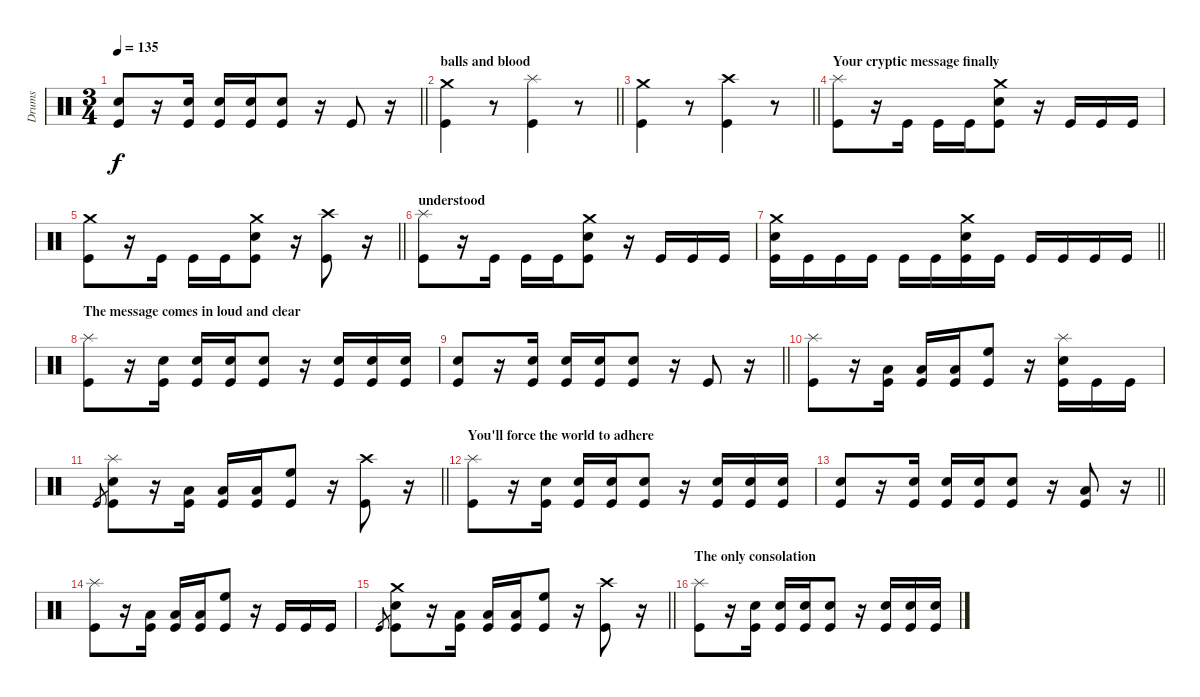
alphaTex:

\track ("Drums" "Drums") {instrument percussion}
\staff {score}
\articulation defaults
\ts (3 4)
\tempo 135
\clef neutral
\barLineRight lightlight
\ks c
("Snare (hit) 2" "Kick (hit)").8{dy f} r.16 ("Snare (hit) 2" "Kick (hit)").16 ("Snare (hit) 2" "Kick (hit)").16 ("Snare (hit) 2" "Kick (hit)").16 ("Snare (hit) 2" "Kick (hit)").8 r.16 "Kick (hit)".8 r.16 |
\section ("" "balls and blood")
\barLineRight lightlight
("Crash medium (hit)" "Kick (hit)").4 r.8 ("Splash (hit)" "Kick (hit)").4 r.8 |
\section ("" "")
\barLineRight lightlight
("Crash medium (hit)" "Kick (hit)").4 r.8 ("Crash high (hit)" "Kick (hit)").4 r.8 |
\section ("" "Your cryptic message finally ")
("Splash (hit)" "Kick (hit)").8 r.16 "Kick (hit)".16 "Kick (hit)".16 "Kick (hit)".16 ("Crash medium (hit)" "Snare (hit) 2" "Kick (hit)").8 r.16 "Kick (hit)".16 "Kick (hit)".16 "Kick (hit)".16 |
\barLineRight lightlight
("Crash medium (hit)" "Kick (hit)").8 r.16 "Kick (hit)".16 "Kick (hit)".16 "Kick (hit)".16 ("Crash medium (hit)" "Snare (hit) 2" "Kick (hit)").8 r.16 ("Crash high (hit)" "Kick (hit)").8 r.16 |
\section ("" "understood")
("Splash (hit)" "Kick (hit)").8 r.16 "Kick (hit)".16 "Kick (hit)".16 "Kick (hit)".16 ("Crash medium (hit)" "Snare (hit) 2" "Kick (hit)").8 r.16 "Kick (hit)".16 "Kick (hit)".16 "Kick (hit)".16 |
\barLineRight lightlight
("Crash medium (hit)" "Snare (hit) 2" "Kick (hit)").16 "Kick (hit)".16 "Kick (hit)".16 "Kick (hit)".16 "Kick (hit)".16 "Kick (hit)".16 ("Crash medium (hit)" "Snare (hit) 2" "Kick (hit)").16 "Kick (hit)".16 "Kick (hit)".16 "Kick (hit)".16 "Kick (hit)".16 "Kick (hit)".16 |
\section ("" "The message comes in loud and clear")
("Splash (hit)" "Kick (hit)").8 r.16 ("Snare (hit) 2" "Kick (hit)").16 ("Snare (hit) 2" "Kick (hit)").16 ("Snare (hit) 2" "Kick (hit)").16 ("Snare (hit) 2" "Kick (hit)").8 r.16 ("Snare (hit) 2" "Kick (hit)").16 ("Snare (hit) 2" "Kick (hit)").16 ("Snare (hit) 2" "Kick (hit)").16 |
\barLineRight lightlight
("Snare (hit) 2" "Kick (hit)").8 r.16 ("Snare (hit) 2" "Kick (hit)").16 ("Snare (hit) 2" "Kick (hit)").16 ("Snare (hit) 2" "Kick (hit)").16 ("Snare (hit) 2" "Kick (hit)").8 r.16 "Kick (hit)".8 r.16 |
\section ("" "")
("Splash (hit)" "Kick (hit)").8 r.16 ("Low Tom (hit)" "Kick (hit)").16 ("Low Tom (hit)" "Kick (hit)").16 ("Low Tom (hit)" "Kick (hit)").16 ("High Floor Tom (hit)" "Kick (hit)").8 r.16 ("Splash (hit)" "Snare (hit) 2" "Kick (hit)").16 "Kick (hit)".16 "Kick (hit)".16 |
\barLineRight lightlight "Kick (hit)".8{gr}
("Splash (hit)" "Snare (hit) 2" "Kick (hit)").8 r.16 ("Low Tom (hit)" "Kick (hit)").16 ("Low Tom (hit)" "Kick (hit)").16 ("Low Tom (hit)" "Kick (hit)").16 ("High Floor Tom (hit)" "Kick (hit)").8 r.16 ("Crash high (hit)" "Kick (hit)").8 r.16 |
\section ("" "You'll force the world to adhere")
("Splash (hit)" "Kick (hit)").8 r.16 ("Snare (hit) 2" "Kick (hit)").16 ("Snare (hit) 2" "Kick (hit)").16 ("Snare (hit) 2" "Kick (hit)").16 ("Snare (hit) 2" "Kick (hit)").8 r.16 ("Snare (hit) 2" "Kick (hit)").16 ("Snare (hit) 2" "Kick (hit)").16 ("Snare (hit) 2" "Kick (hit)").16 |
\barLineRight lightlight
("Snare (hit) 2" "Kick (hit)").8 r.16 ("Snare (hit) 2" "Kick (hit)").16 ("Snare (hit) 2" "Kick (hit)").16 ("Snare (hit) 2" "Kick (hit)").16 ("Snare (hit) 2" "Kick (hit)").8 r.16 ("Low Tom (hit)" "Kick (hit)").8 r.16 |
\section ("" "")
("Splash (hit)" "Kick (hit)").8 r.16 ("Low Tom (hit)" "Kick (hit)").16 ("Low Tom (hit)" "Kick (hit)").16 ("Low Tom (hit)" "Kick (hit)").16 ("High Floor Tom (hit)" "Kick (hit)").8 r.16 "Kick (hit)".16 "Kick (hit)".16 "Kick (hit)".16 |
\barLineRight lightlight "Kick (hit)".8{gr}
("Crash medium (hit)" "Snare (hit) 2" "Kick (hit)").8 r.16 ("Low Tom (hit)" "Kick (hit)").16 ("Low Tom (hit)" "Kick (hit)").16 ("Low Tom (hit)" "Kick (hit)").16 ("High Floor Tom (hit)" "Kick (hit)").8 r.16 ("Crash high (hit)" "Kick (hit)").8 r.16 |
\section ("" "The only consolation ")
("Splash (hit)" "Kick (hit)").8 r.16 ("Snare (hit) 2" "Kick (hit)").16 ("Snare (hit) 2" "Kick (hit)").16 ("Snare (hit) 2" "Kick (hit)").16 ("Snare (hit) 2" "Kick (hit)").8 r.16 ("Snare (hit) 2" "Kick (hit)").16 ("Snare (hit) 2" "Kick (hit)").16 ("Snare (hit) 2" "Kick (hit)").16
